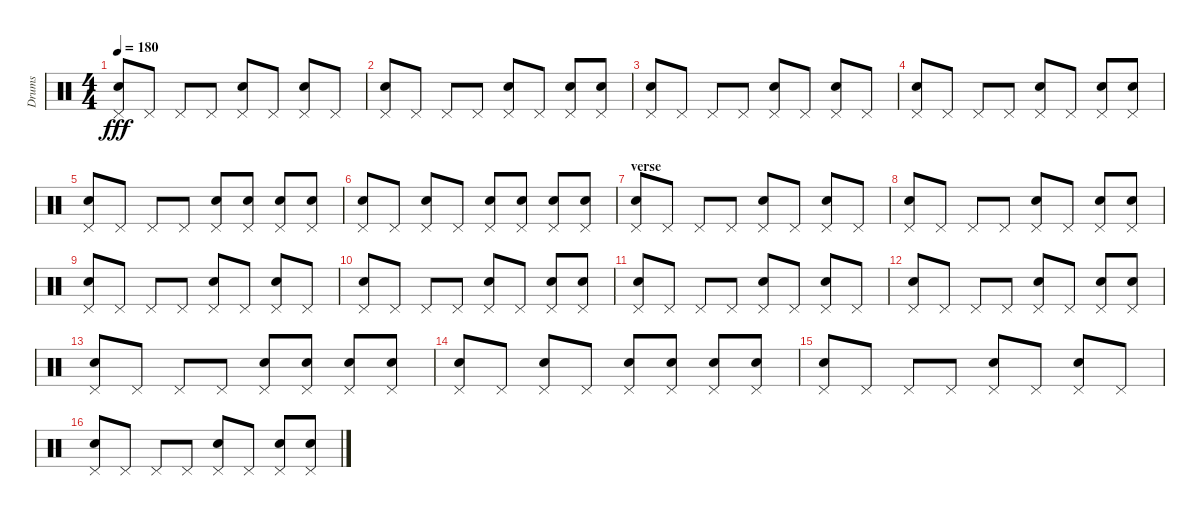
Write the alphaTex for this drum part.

\track ("Drums" "Drums") {instrument percussion}
\staff {score}
\articulation defaults
\ts (4 4)
\tempo 180
\clef neutral
\ks c
("Electric Snare (hit)" "Pedal Hi-Hat (hit)").8{dy fff} "Pedal Hi-Hat (hit)".8 "Pedal Hi-Hat (hit)".8 "Pedal Hi-Hat (hit)".8 ("Electric Snare (hit)" "Pedal Hi-Hat (hit)").8 "Pedal Hi-Hat (hit)".8 ("Electric Snare (hit)" "Pedal Hi-Hat (hit)").8 "Pedal Hi-Hat (hit)".8 |
("Electric Snare (hit)" "Pedal Hi-Hat (hit)").8 "Pedal Hi-Hat (hit)".8 "Pedal Hi-Hat (hit)".8 "Pedal Hi-Hat (hit)".8 ("Electric Snare (hit)" "Pedal Hi-Hat (hit)").8 "Pedal Hi-Hat (hit)".8 ("Electric Snare (hit)" "Pedal Hi-Hat (hit)").8 ("Electric Snare (hit)" "Pedal Hi-Hat (hit)").8 |
("Electric Snare (hit)" "Pedal Hi-Hat (hit)").8 "Pedal Hi-Hat (hit)".8 "Pedal Hi-Hat (hit)".8 "Pedal Hi-Hat (hit)".8 ("Electric Snare (hit)" "Pedal Hi-Hat (hit)").8 "Pedal Hi-Hat (hit)".8 ("Electric Snare (hit)" "Pedal Hi-Hat (hit)").8 "Pedal Hi-Hat (hit)".8 |
("Electric Snare (hit)" "Pedal Hi-Hat (hit)").8 "Pedal Hi-Hat (hit)".8 "Pedal Hi-Hat (hit)".8 "Pedal Hi-Hat (hit)".8 ("Electric Snare (hit)" "Pedal Hi-Hat (hit)").8 "Pedal Hi-Hat (hit)".8 ("Electric Snare (hit)" "Pedal Hi-Hat (hit)").8 ("Electric Snare (hit)" "Pedal Hi-Hat (hit)").8 |
("Electric Snare (hit)" "Pedal Hi-Hat (hit)").8 "Pedal Hi-Hat (hit)".8 "Pedal Hi-Hat (hit)".8 "Pedal Hi-Hat (hit)".8 ("Electric Snare (hit)" "Pedal Hi-Hat (hit)").8 ("Electric Snare (hit)" "Pedal Hi-Hat (hit)").8 ("Electric Snare (hit)" "Pedal Hi-Hat (hit)").8 ("Electric Snare (hit)" "Pedal Hi-Hat (hit)").8 |
("Electric Snare (hit)" "Pedal Hi-Hat (hit)").8 "Pedal Hi-Hat (hit)".8 ("Electric Snare (hit)" "Pedal Hi-Hat (hit)").8 "Pedal Hi-Hat (hit)".8 ("Electric Snare (hit)" "Pedal Hi-Hat (hit)").8 ("Electric Snare (hit)" "Pedal Hi-Hat (hit)").8 ("Electric Snare (hit)" "Pedal Hi-Hat (hit)").8 ("Electric Snare (hit)" "Pedal Hi-Hat (hit)").8 |
\section ("" "verse")
("Electric Snare (hit)" "Pedal Hi-Hat (hit)").8 "Pedal Hi-Hat (hit)".8 "Pedal Hi-Hat (hit)".8 "Pedal Hi-Hat (hit)".8 ("Electric Snare (hit)" "Pedal Hi-Hat (hit)").8 "Pedal Hi-Hat (hit)".8 ("Electric Snare (hit)" "Pedal Hi-Hat (hit)").8 "Pedal Hi-Hat (hit)".8 |
("Electric Snare (hit)" "Pedal Hi-Hat (hit)").8 "Pedal Hi-Hat (hit)".8 "Pedal Hi-Hat (hit)".8 "Pedal Hi-Hat (hit)".8 ("Electric Snare (hit)" "Pedal Hi-Hat (hit)").8 "Pedal Hi-Hat (hit)".8 ("Electric Snare (hit)" "Pedal Hi-Hat (hit)").8 ("Electric Snare (hit)" "Pedal Hi-Hat (hit)").8 |
("Electric Snare (hit)" "Pedal Hi-Hat (hit)").8 "Pedal Hi-Hat (hit)".8 "Pedal Hi-Hat (hit)".8 "Pedal Hi-Hat (hit)".8 ("Electric Snare (hit)" "Pedal Hi-Hat (hit)").8 "Pedal Hi-Hat (hit)".8 ("Electric Snare (hit)" "Pedal Hi-Hat (hit)").8 "Pedal Hi-Hat (hit)".8 |
("Electric Snare (hit)" "Pedal Hi-Hat (hit)").8 "Pedal Hi-Hat (hit)".8 "Pedal Hi-Hat (hit)".8 "Pedal Hi-Hat (hit)".8 ("Electric Snare (hit)" "Pedal Hi-Hat (hit)").8 "Pedal Hi-Hat (hit)".8 ("Electric Snare (hit)" "Pedal Hi-Hat (hit)").8 ("Electric Snare (hit)" "Pedal Hi-Hat (hit)").8 |
("Electric Snare (hit)" "Pedal Hi-Hat (hit)").8 "Pedal Hi-Hat (hit)".8 "Pedal Hi-Hat (hit)".8 "Pedal Hi-Hat (hit)".8 ("Electric Snare (hit)" "Pedal Hi-Hat (hit)").8 "Pedal Hi-Hat (hit)".8 ("Electric Snare (hit)" "Pedal Hi-Hat (hit)").8 "Pedal Hi-Hat (hit)".8 |
("Electric Snare (hit)" "Pedal Hi-Hat (hit)").8 "Pedal Hi-Hat (hit)".8 "Pedal Hi-Hat (hit)".8 "Pedal Hi-Hat (hit)".8 ("Electric Snare (hit)" "Pedal Hi-Hat (hit)").8 "Pedal Hi-Hat (hit)".8 ("Electric Snare (hit)" "Pedal Hi-Hat (hit)").8 ("Electric Snare (hit)" "Pedal Hi-Hat (hit)").8 |
("Electric Snare (hit)" "Pedal Hi-Hat (hit)").8 "Pedal Hi-Hat (hit)".8 "Pedal Hi-Hat (hit)".8 "Pedal Hi-Hat (hit)".8 ("Electric Snare (hit)" "Pedal Hi-Hat (hit)").8 ("Electric Snare (hit)" "Pedal Hi-Hat (hit)").8 ("Electric Snare (hit)" "Pedal Hi-Hat (hit)").8 ("Electric Snare (hit)" "Pedal Hi-Hat (hit)").8 |
("Electric Snare (hit)" "Pedal Hi-Hat (hit)").8 "Pedal Hi-Hat (hit)".8 ("Electric Snare (hit)" "Pedal Hi-Hat (hit)").8 "Pedal Hi-Hat (hit)".8 ("Electric Snare (hit)" "Pedal Hi-Hat (hit)").8 ("Electric Snare (hit)" "Pedal Hi-Hat (hit)").8 ("Electric Snare (hit)" "Pedal Hi-Hat (hit)").8 ("Electric Snare (hit)" "Pedal Hi-Hat (hit)").8 |
("Electric Snare (hit)" "Pedal Hi-Hat (hit)").8 "Pedal Hi-Hat (hit)".8 "Pedal Hi-Hat (hit)".8 "Pedal Hi-Hat (hit)".8 ("Electric Snare (hit)" "Pedal Hi-Hat (hit)").8 "Pedal Hi-Hat (hit)".8 ("Electric Snare (hit)" "Pedal Hi-Hat (hit)").8 "Pedal Hi-Hat (hit)".8 |
("Electric Snare (hit)" "Pedal Hi-Hat (hit)").8 "Pedal Hi-Hat (hit)".8 "Pedal Hi-Hat (hit)".8 "Pedal Hi-Hat (hit)".8 ("Electric Snare (hit)" "Pedal Hi-Hat (hit)").8 "Pedal Hi-Hat (hit)".8 ("Electric Snare (hit)" "Pedal Hi-Hat (hit)").8 ("Electric Snare (hit)" "Pedal Hi-Hat (hit)").8
